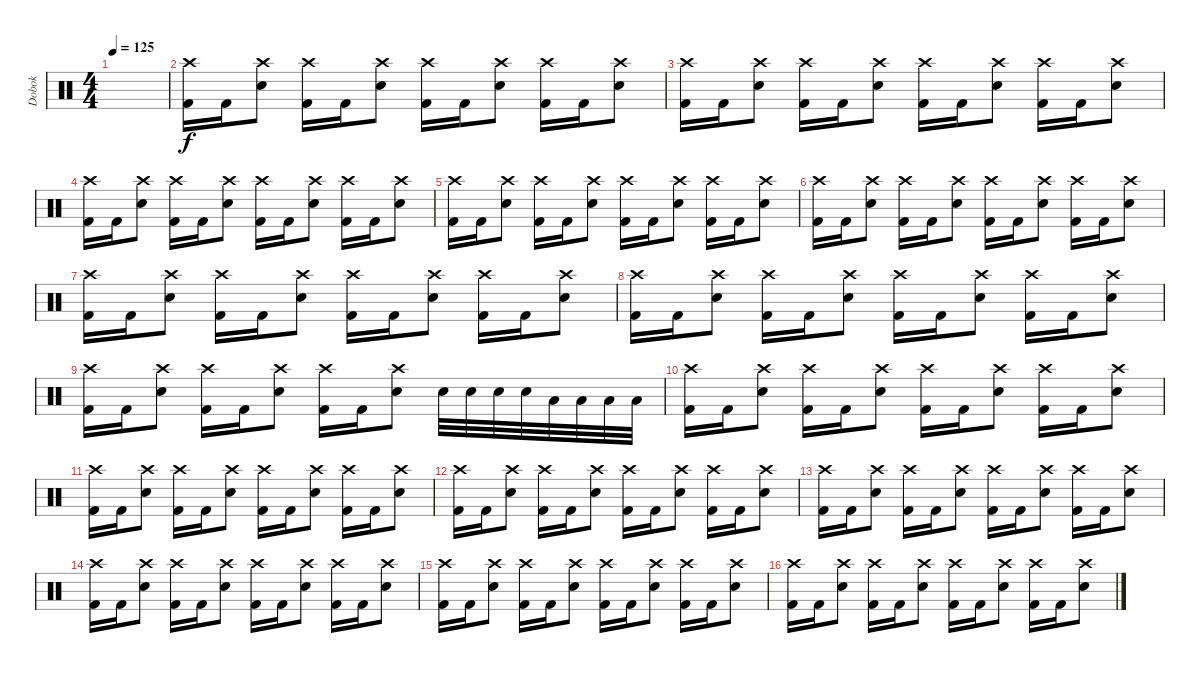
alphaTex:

\track ("Dobok" "Dobok") {instrument percussion}
\staff {score}
\articulation defaults
\ts (4 4)
\tempo 125
\clef neutral
\ks c
|
("Crash high (hit)" "Kick (hit) 2").16 "Kick (hit) 2".16 ("Crash high (hit)" "Snare (hit) 2").8 ("Crash high (hit)" "Kick (hit) 2").16 "Kick (hit) 2".16 ("Crash high (hit)" "Snare (hit) 2").8 ("Crash high (hit)" "Kick (hit) 2").16 "Kick (hit) 2".16 ("Crash high (hit)" "Snare (hit) 2").8 ("Crash high (hit)" "Kick (hit) 2").16 "Kick (hit) 2".16 ("Crash high (hit)" "Snare (hit) 2").8 |
("Crash high (hit)" "Kick (hit) 2").16 "Kick (hit) 2".16 ("Crash high (hit)" "Snare (hit) 2").8 ("Crash high (hit)" "Kick (hit) 2").16 "Kick (hit) 2".16 ("Crash high (hit)" "Snare (hit) 2").8 ("Crash high (hit)" "Kick (hit) 2").16 "Kick (hit) 2".16 ("Crash high (hit)" "Snare (hit) 2").8 ("Crash high (hit)" "Kick (hit) 2").16 "Kick (hit) 2".16 ("Crash high (hit)" "Snare (hit) 2").8 |
("Crash high (hit)" "Kick (hit) 2").16 "Kick (hit) 2".16 ("Crash high (hit)" "Snare (hit) 2").8 ("Crash high (hit)" "Kick (hit) 2").16 "Kick (hit) 2".16 ("Crash high (hit)" "Snare (hit) 2").8 ("Crash high (hit)" "Kick (hit) 2").16 "Kick (hit) 2".16 ("Crash high (hit)" "Snare (hit) 2").8 ("Crash high (hit)" "Kick (hit) 2").16 "Kick (hit) 2".16 ("Crash high (hit)" "Snare (hit) 2").8 |
("Crash high (hit)" "Kick (hit) 2").16 "Kick (hit) 2".16 ("Crash high (hit)" "Snare (hit) 2").8 ("Crash high (hit)" "Kick (hit) 2").16 "Kick (hit) 2".16 ("Crash high (hit)" "Snare (hit) 2").8 ("Crash high (hit)" "Kick (hit) 2").16 "Kick (hit) 2".16 ("Crash high (hit)" "Snare (hit) 2").8 ("Crash high (hit)" "Kick (hit) 2").16 "Kick (hit) 2".16 ("Crash high (hit)" "Snare (hit) 2").8 |
("Crash high (hit)" "Kick (hit) 2").16 "Kick (hit) 2".16 ("Crash high (hit)" "Snare (hit) 2").8 ("Crash high (hit)" "Kick (hit) 2").16 "Kick (hit) 2".16 ("Crash high (hit)" "Snare (hit) 2").8 ("Crash high (hit)" "Kick (hit) 2").16 "Kick (hit) 2".16 ("Crash high (hit)" "Snare (hit) 2").8 ("Crash high (hit)" "Kick (hit) 2").16 "Kick (hit) 2".16 ("Crash high (hit)" "Snare (hit) 2").8 |
("Crash high (hit)" "Kick (hit) 2").16 "Kick (hit) 2".16 ("Crash high (hit)" "Snare (hit) 2").8 ("Crash high (hit)" "Kick (hit) 2").16 "Kick (hit) 2".16 ("Crash high (hit)" "Snare (hit) 2").8 ("Crash high (hit)" "Kick (hit) 2").16 "Kick (hit) 2".16 ("Crash high (hit)" "Snare (hit) 2").8 ("Crash high (hit)" "Kick (hit) 2").16 "Kick (hit) 2".16 ("Crash high (hit)" "Snare (hit) 2").8 |
("Crash high (hit)" "Kick (hit) 2").16 "Kick (hit) 2".16 ("Crash high (hit)" "Snare (hit) 2").8 ("Crash high (hit)" "Kick (hit) 2").16 "Kick (hit) 2".16 ("Crash high (hit)" "Snare (hit) 2").8 ("Crash high (hit)" "Kick (hit) 2").16 "Kick (hit) 2".16 ("Crash high (hit)" "Snare (hit) 2").8 ("Crash high (hit)" "Kick (hit) 2").16 "Kick (hit) 2".16 ("Crash high (hit)" "Snare (hit) 2").8 |
("Crash high (hit)" "Kick (hit) 2").16 "Kick (hit) 2".16 ("Crash high (hit)" "Snare (hit) 2").8 ("Crash high (hit)" "Kick (hit) 2").16 "Kick (hit) 2".16 ("Crash high (hit)" "Snare (hit) 2").8 ("Crash high (hit)" "Kick (hit) 2").16 "Kick (hit) 2".16 ("Crash high (hit)" "Snare (hit) 2").8 "Snare (hit) 2".32 "Snare (hit) 2".32 "Snare (hit) 2".32 "Snare (hit) 2".32 "Low Tom (hit)".32 "Low Tom (hit)".32 "Low Tom (hit)".32 "Low Tom (hit)".32 |
("Crash high (hit)" "Kick (hit) 2").16 "Kick (hit) 2".16 ("Crash high (hit)" "Snare (hit) 2").8 ("Crash high (hit)" "Kick (hit) 2").16 "Kick (hit) 2".16 ("Crash high (hit)" "Snare (hit) 2").8 ("Crash high (hit)" "Kick (hit) 2").16 "Kick (hit) 2".16 ("Crash high (hit)" "Snare (hit) 2").8 ("Crash high (hit)" "Kick (hit) 2").16 "Kick (hit) 2".16 ("Crash high (hit)" "Snare (hit) 2").8 |
("Crash high (hit)" "Kick (hit) 2").16 "Kick (hit) 2".16 ("Crash high (hit)" "Snare (hit) 2").8 ("Crash high (hit)" "Kick (hit) 2").16 "Kick (hit) 2".16 ("Crash high (hit)" "Snare (hit) 2").8 ("Crash high (hit)" "Kick (hit) 2").16 "Kick (hit) 2".16 ("Crash high (hit)" "Snare (hit) 2").8 ("Crash high (hit)" "Kick (hit) 2").16 "Kick (hit) 2".16 ("Crash high (hit)" "Snare (hit) 2").8 |
("Crash high (hit)" "Kick (hit) 2").16 "Kick (hit) 2".16 ("Crash high (hit)" "Snare (hit) 2").8 ("Crash high (hit)" "Kick (hit) 2").16 "Kick (hit) 2".16 ("Crash high (hit)" "Snare (hit) 2").8 ("Crash high (hit)" "Kick (hit) 2").16 "Kick (hit) 2".16 ("Crash high (hit)" "Snare (hit) 2").8 ("Crash high (hit)" "Kick (hit) 2").16 "Kick (hit) 2".16 ("Crash high (hit)" "Snare (hit) 2").8 |
("Crash high (hit)" "Kick (hit) 2").16 "Kick (hit) 2".16 ("Crash high (hit)" "Snare (hit) 2").8 ("Crash high (hit)" "Kick (hit) 2").16 "Kick (hit) 2".16 ("Crash high (hit)" "Snare (hit) 2").8 ("Crash high (hit)" "Kick (hit) 2").16 "Kick (hit) 2".16 ("Crash high (hit)" "Snare (hit) 2").8 ("Crash high (hit)" "Kick (hit) 2").16 "Kick (hit) 2".16 ("Crash high (hit)" "Snare (hit) 2").8 |
("Crash high (hit)" "Kick (hit) 2").16 "Kick (hit) 2".16 ("Crash high (hit)" "Snare (hit) 2").8 ("Crash high (hit)" "Kick (hit) 2").16 "Kick (hit) 2".16 ("Crash high (hit)" "Snare (hit) 2").8 ("Crash high (hit)" "Kick (hit) 2").16 "Kick (hit) 2".16 ("Crash high (hit)" "Snare (hit) 2").8 ("Crash high (hit)" "Kick (hit) 2").16 "Kick (hit) 2".16 ("Crash high (hit)" "Snare (hit) 2").8 |
("Crash high (hit)" "Kick (hit) 2").16 "Kick (hit) 2".16 ("Crash high (hit)" "Snare (hit) 2").8 ("Crash high (hit)" "Kick (hit) 2").16 "Kick (hit) 2".16 ("Crash high (hit)" "Snare (hit) 2").8 ("Crash high (hit)" "Kick (hit) 2").16 "Kick (hit) 2".16 ("Crash high (hit)" "Snare (hit) 2").8 ("Crash high (hit)" "Kick (hit) 2").16 "Kick (hit) 2".16 ("Crash high (hit)" "Snare (hit) 2").8 |
("Crash high (hit)" "Kick (hit) 2").16 "Kick (hit) 2".16 ("Crash high (hit)" "Snare (hit) 2").8 ("Crash high (hit)" "Kick (hit) 2").16 "Kick (hit) 2".16 ("Crash high (hit)" "Snare (hit) 2").8 ("Crash high (hit)" "Kick (hit) 2").16 "Kick (hit) 2".16 ("Crash high (hit)" "Snare (hit) 2").8 ("Crash high (hit)" "Kick (hit) 2").16 "Kick (hit) 2".16 ("Crash high (hit)" "Snare (hit) 2").8
